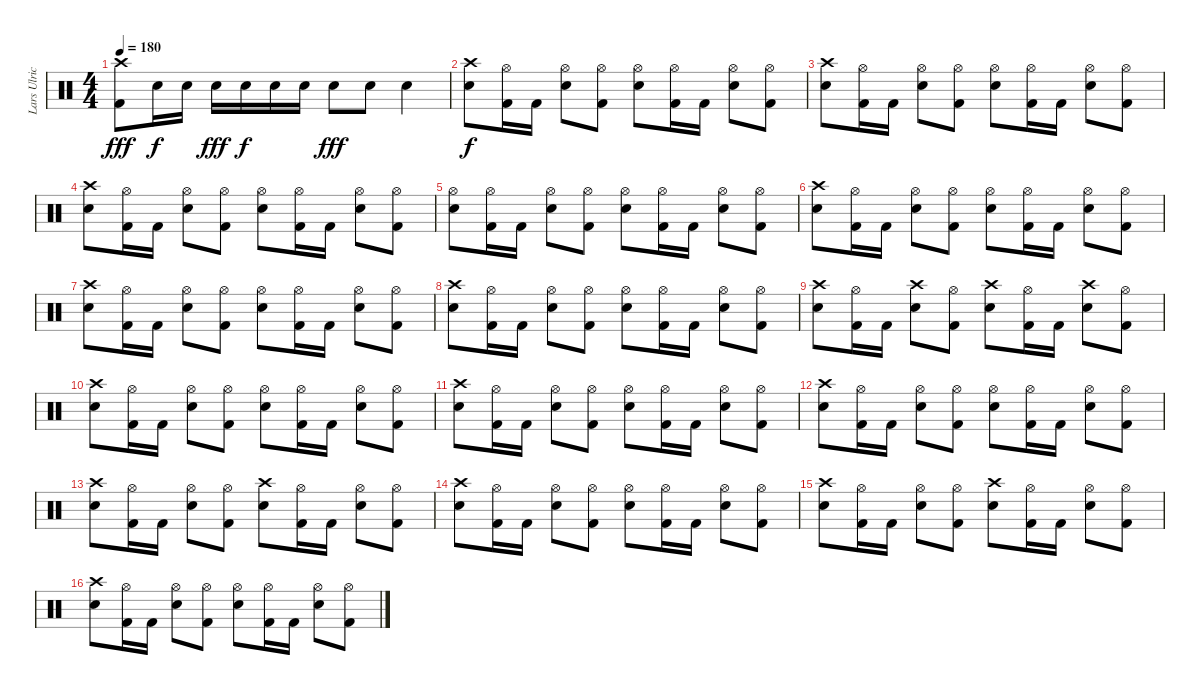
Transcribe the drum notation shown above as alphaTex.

\track ("Lars Ulrich" "Lars Ulric") {instrument percussion}
\staff {score}
\articulation defaults
\ts (4 4)
\tempo 180
\clef neutral
\ks c
("Kick (hit) 2" "Crash high (hit)").8{dy fff} "Snare (hit) 2".16{dy f} "Snare (hit) 2".16 "Snare (hit) 2".16{dy fff} "Snare (hit) 2".16{dy f} "Snare (hit) 2".16 "Snare (hit) 2".16 "Snare (hit) 2".8{dy fff} "Snare (hit) 2".8 "Snare (hit) 2".4 |
("Snare (hit) 2" "Crash high (hit)").8{dy f} ("Kick (hit) 2" "Hi-Hat (open)").16 "Kick (hit) 2".16 ("Snare (hit) 2" "Hi-Hat (open)").8 ("Kick (hit) 2" "Hi-Hat (open)").8 ("Snare (hit) 2" "Hi-Hat (open)").8 ("Kick (hit) 2" "Hi-Hat (open)").16 "Kick (hit) 2".16 ("Snare (hit) 2" "Hi-Hat (open)").8 ("Kick (hit) 2" "Hi-Hat (open)").8 |
("Snare (hit) 2" "Crash high (hit)").8 ("Kick (hit) 2" "Hi-Hat (open)").16 "Kick (hit) 2".16 ("Snare (hit) 2" "Hi-Hat (open)").8 ("Kick (hit) 2" "Hi-Hat (open)").8 ("Snare (hit) 2" "Hi-Hat (open)").8 ("Kick (hit) 2" "Hi-Hat (open)").16 "Kick (hit) 2".16 ("Snare (hit) 2" "Hi-Hat (open)").8 ("Kick (hit) 2" "Hi-Hat (open)").8 |
("Snare (hit) 2" "Crash high (hit)").8 ("Kick (hit) 2" "Hi-Hat (open)").16 "Kick (hit) 2".16 ("Snare (hit) 2" "Hi-Hat (open)").8 ("Kick (hit) 2" "Hi-Hat (open)").8 ("Snare (hit) 2" "Hi-Hat (open)").8 ("Kick (hit) 2" "Hi-Hat (open)").16 "Kick (hit) 2".16 ("Snare (hit) 2" "Hi-Hat (open)").8 ("Kick (hit) 2" "Hi-Hat (open)").8 |
("Snare (hit) 2" "Hi-Hat (open)").8 ("Kick (hit) 2" "Hi-Hat (open)").16 "Kick (hit) 2".16 ("Snare (hit) 2" "Hi-Hat (open)").8 ("Kick (hit) 2" "Hi-Hat (open)").8 ("Snare (hit) 2" "Hi-Hat (open)").8 ("Kick (hit) 2" "Hi-Hat (open)").16 "Kick (hit) 2".16 ("Snare (hit) 2" "Hi-Hat (open)").8 ("Kick (hit) 2" "Hi-Hat (open)").8 |
("Snare (hit) 2" "Crash high (hit)").8 ("Kick (hit) 2" "Hi-Hat (open)").16 "Kick (hit) 2".16 ("Snare (hit) 2" "Hi-Hat (open)").8 ("Kick (hit) 2" "Hi-Hat (open)").8 ("Snare (hit) 2" "Hi-Hat (open)").8 ("Kick (hit) 2" "Hi-Hat (open)").16 "Kick (hit) 2".16 ("Snare (hit) 2" "Hi-Hat (open)").8 ("Kick (hit) 2" "Hi-Hat (open)").8 |
("Snare (hit) 2" "Crash high (hit)").8 ("Kick (hit) 2" "Hi-Hat (open)").16 "Kick (hit) 2".16 ("Snare (hit) 2" "Hi-Hat (open)").8 ("Kick (hit) 2" "Hi-Hat (open)").8 ("Snare (hit) 2" "Hi-Hat (open)").8 ("Kick (hit) 2" "Hi-Hat (open)").16 "Kick (hit) 2".16 ("Snare (hit) 2" "Hi-Hat (open)").8 ("Kick (hit) 2" "Hi-Hat (open)").8 |
("Snare (hit) 2" "Crash high (hit)").8 ("Kick (hit) 2" "Hi-Hat (open)").16 "Kick (hit) 2".16 ("Snare (hit) 2" "Hi-Hat (open)").8 ("Kick (hit) 2" "Hi-Hat (open)").8 ("Snare (hit) 2" "Hi-Hat (open)").8 ("Kick (hit) 2" "Hi-Hat (open)").16 "Kick (hit) 2".16 ("Snare (hit) 2" "Hi-Hat (open)").8 ("Kick (hit) 2" "Hi-Hat (open)").8 |
("Snare (hit) 2" "Crash high (hit)").8 ("Kick (hit) 2" "Hi-Hat (open)").16 "Kick (hit) 2".16 ("Snare (hit) 2" "Crash high (hit)").8 ("Kick (hit) 2" "Hi-Hat (open)").8 ("Snare (hit) 2" "Crash high (hit)").8 ("Kick (hit) 2" "Hi-Hat (open)").16 "Kick (hit) 2".16 ("Snare (hit) 2" "Crash high (hit)").8 ("Kick (hit) 2" "Hi-Hat (open)").8 |
("Snare (hit) 2" "Crash high (hit)").8 ("Kick (hit) 2" "Hi-Hat (open)").16 "Kick (hit) 2".16 ("Snare (hit) 2" "Hi-Hat (open)").8 ("Kick (hit) 2" "Hi-Hat (open)").8 ("Snare (hit) 2" "Hi-Hat (open)").8 ("Kick (hit) 2" "Hi-Hat (open)").16 "Kick (hit) 2".16 ("Snare (hit) 2" "Hi-Hat (open)").8 ("Kick (hit) 2" "Hi-Hat (open)").8 |
("Snare (hit) 2" "Crash high (hit)").8 ("Kick (hit) 2" "Hi-Hat (open)").16 "Kick (hit) 2".16 ("Snare (hit) 2" "Hi-Hat (open)").8 ("Kick (hit) 2" "Hi-Hat (open)").8 ("Snare (hit) 2" "Hi-Hat (open)").8 ("Kick (hit) 2" "Hi-Hat (open)").16 "Kick (hit) 2".16 ("Snare (hit) 2" "Hi-Hat (open)").8 ("Kick (hit) 2" "Hi-Hat (open)").8 |
("Snare (hit) 2" "Crash high (hit)").8 ("Kick (hit) 2" "Hi-Hat (open)").16 "Kick (hit) 2".16 ("Snare (hit) 2" "Hi-Hat (open)").8 ("Kick (hit) 2" "Hi-Hat (open)").8 ("Snare (hit) 2" "Hi-Hat (open)").8 ("Kick (hit) 2" "Hi-Hat (open)").16 "Kick (hit) 2".16 ("Snare (hit) 2" "Hi-Hat (open)").8 ("Kick (hit) 2" "Hi-Hat (open)").8 |
("Snare (hit) 2" "Crash high (hit)").8 ("Kick (hit) 2" "Hi-Hat (open)").16 "Kick (hit) 2".16 ("Snare (hit) 2" "Hi-Hat (open)").8 ("Kick (hit) 2" "Hi-Hat (open)").8 ("Snare (hit) 2" "Crash high (hit)").8 ("Kick (hit) 2" "Hi-Hat (open)").16 "Kick (hit) 2".16 ("Snare (hit) 2" "Hi-Hat (open)").8 ("Kick (hit) 2" "Hi-Hat (open)").8 |
("Snare (hit) 2" "Crash high (hit)").8 ("Kick (hit) 2" "Hi-Hat (open)").16 "Kick (hit) 2".16 ("Snare (hit) 2" "Hi-Hat (open)").8 ("Kick (hit) 2" "Hi-Hat (open)").8 ("Snare (hit) 2" "Hi-Hat (open)").8 ("Kick (hit) 2" "Hi-Hat (open)").16 "Kick (hit) 2".16 ("Snare (hit) 2" "Hi-Hat (open)").8 ("Kick (hit) 2" "Hi-Hat (open)").8 |
("Snare (hit) 2" "Crash high (hit)").8 ("Kick (hit) 2" "Hi-Hat (open)").16 "Kick (hit) 2".16 ("Snare (hit) 2" "Hi-Hat (open)").8 ("Kick (hit) 2" "Hi-Hat (open)").8 ("Snare (hit) 2" "Crash high (hit)").8 ("Kick (hit) 2" "Hi-Hat (open)").16 "Kick (hit) 2".16 ("Snare (hit) 2" "Hi-Hat (open)").8 ("Kick (hit) 2" "Hi-Hat (open)").8 |
("Snare (hit) 2" "Crash high (hit)").8 ("Kick (hit) 2" "Hi-Hat (open)").16 "Kick (hit) 2".16 ("Snare (hit) 2" "Hi-Hat (open)").8 ("Kick (hit) 2" "Hi-Hat (open)").8 ("Snare (hit) 2" "Hi-Hat (open)").8 ("Kick (hit) 2" "Hi-Hat (open)").16 "Kick (hit) 2".16 ("Snare (hit) 2" "Hi-Hat (open)").8 ("Kick (hit) 2" "Hi-Hat (open)").8
